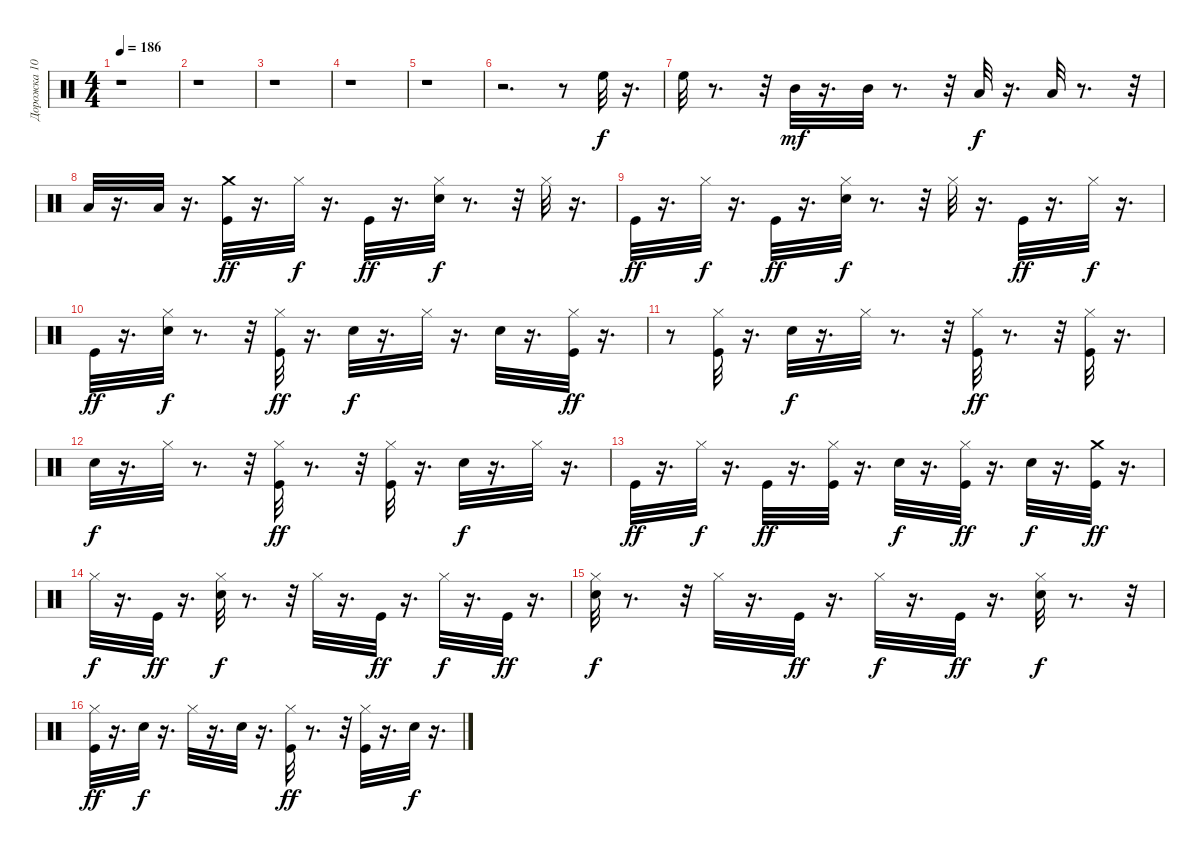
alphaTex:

\track ("Дорожка 10" "Дорожка 10") {instrument percussion}
\staff {score}
\articulation defaults
\ts (4 4)
\tempo 186
\clef neutral
\ks c
r.1{dy f} |
r.1 |
r.1 |
r.1 |
r.1 |
r.2{d} r.8 "High Floor Tom (hit)".32 r.16{d} |
"High Floor Tom (hit)".32 r.8{d} r.32 "Mid Tom (hit)".32{dy mf} r.16{d} "Mid Tom (hit)".32 r.8{d} r.32 "Low Tom (hit)".32{dy f} r.16{d} "Low Tom (hit)".32 r.8{d} r.32 |
"Low Floor Tom (hit)".32 r.16{d} "Low Floor Tom (hit)".32 r.16{d} ("Kick (hit)" "Crash medium (hit)").32{dy ff} r.16{d} "Hi-Hat (closed)".32{dy f} r.16{d} "Kick (hit)".32{dy ff} r.16{d} ("Electric Snare (hit)" "Hi-Hat (closed)").32{dy f} r.8{d} r.32 "Hi-Hat (closed)".32 r.16{d} |
"Kick (hit)".32{dy ff} r.16{d} "Hi-Hat (closed)".32{dy f} r.16{d} "Kick (hit)".32{dy ff} r.16{d} ("Hi-Hat (closed)" "Electric Snare (hit)").32{dy f} r.8{d} r.32 "Hi-Hat (closed)".32 r.16{d} "Kick (hit)".32{dy ff} r.16{d} "Hi-Hat (closed)".32{dy f} r.16{d} |
"Kick (hit)".32{dy ff} r.16{d} ("Hi-Hat (closed)" "Electric Snare (hit)").32{dy f} r.8{d} r.32 ("Kick (hit)" "Hi-Hat (closed)").32{dy ff} r.16{d} "Electric Snare (hit)".32{dy f} r.16{d} "Hi-Hat (closed)".32 r.16{d} "Electric Snare (hit)".32 r.16{d} ("Kick (hit)" "Hi-Hat (closed)").32{dy ff} r.16{d} |
r.8 ("Kick (hit)" "Hi-Hat (closed)").32 r.16{d} "Electric Snare (hit)".32{dy f} r.16{d} "Hi-Hat (closed)".32 r.8{d} r.32 ("Kick (hit)" "Hi-Hat (closed)").32{dy ff} r.8{d} r.32 ("Kick (hit)" "Hi-Hat (closed)").32 r.16{d} |
"Electric Snare (hit)".32{dy f} r.16{d} "Hi-Hat (closed)".32 r.8{d} r.32 ("Kick (hit)" "Hi-Hat (closed)").32{dy ff} r.8{d} r.32 ("Kick (hit)" "Hi-Hat (closed)").32 r.16{d} "Electric Snare (hit)".32{dy f} r.16{d} "Hi-Hat (closed)".32 r.16{d} |
"Kick (hit)".32{dy ff} r.16{d} "Hi-Hat (closed)".32{dy f} r.16{d} "Kick (hit)".32{dy ff} r.16{d} ("Kick (hit)" "Hi-Hat (closed)").32 r.16{d} "Electric Snare (hit)".32{dy f} r.16{d} ("Kick (hit)" "Hi-Hat (closed)").32{dy ff} r.16{d} "Electric Snare (hit)".32{dy f} r.16{d} ("Kick (hit)" "Crash medium (hit)").32{dy ff} r.16{d} |
"Hi-Hat (closed)".32{dy f} r.16{d} "Kick (hit)".32{dy ff} r.16{d} ("Hi-Hat (closed)" "Electric Snare (hit)").32{dy f} r.8{d} r.32 "Hi-Hat (closed)".32 r.16{d} "Kick (hit)".32{dy ff} r.16{d} "Hi-Hat (closed)".32{dy f} r.16{d} "Kick (hit)".32{dy ff} r.16{d} |
("Electric Snare (hit)" "Hi-Hat (closed)").32{dy f} r.8{d} r.32 "Hi-Hat (closed)".32 r.16{d} "Kick (hit)".32{dy ff} r.16{d} "Hi-Hat (closed)".32{dy f} r.16{d} "Kick (hit)".32{dy ff} r.16{d} ("Hi-Hat (closed)" "Electric Snare (hit)").32{dy f} r.8{d} r.32 |
("Kick (hit)" "Hi-Hat (closed)").32{dy ff} r.16{d} "Electric Snare (hit)".32{dy f} r.16{d} "Hi-Hat (closed)".32 r.16{d} "Electric Snare (hit)".32 r.16{d} ("Kick (hit)" "Hi-Hat (closed)").32{dy ff} r.8{d} r.32 ("Kick (hit)" "Hi-Hat (closed)").32 r.16{d} "Electric Snare (hit)".32{dy f} r.16{d}
